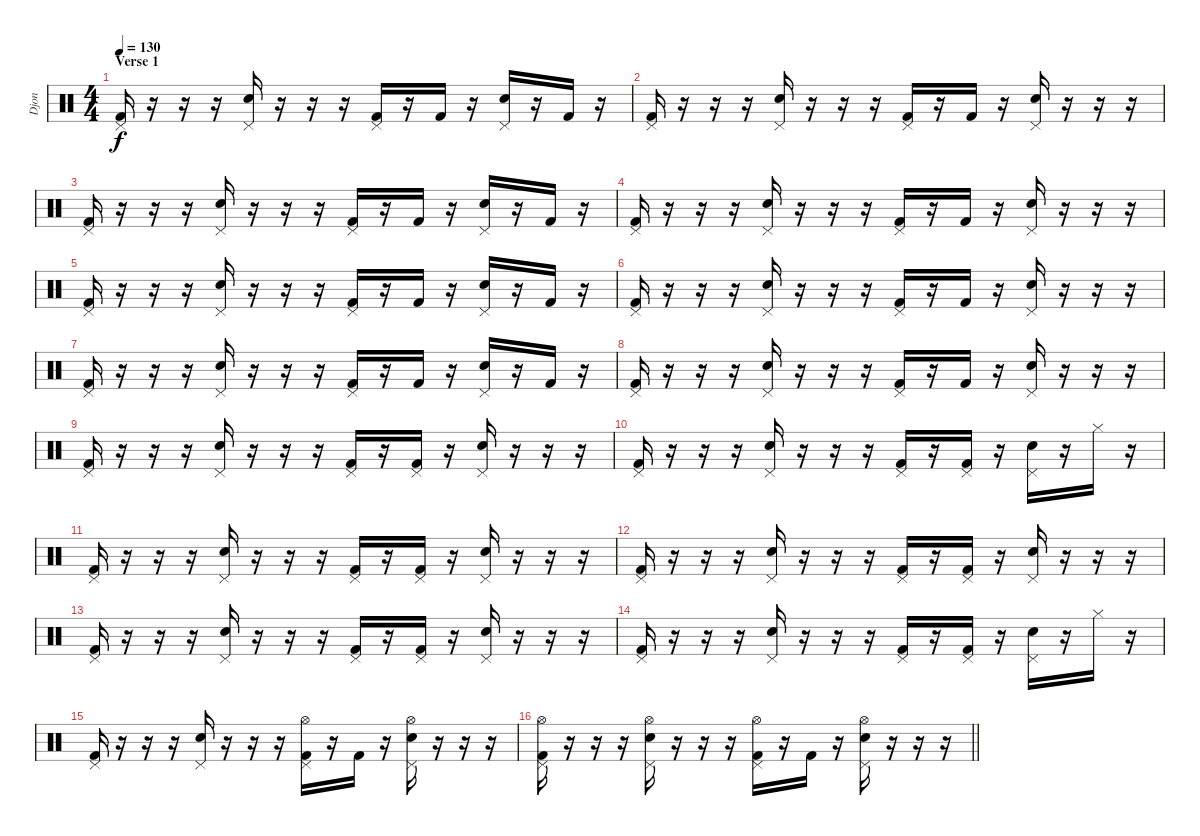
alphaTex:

\track ("Djon" "Djon") {instrument percussion}
\staff {score}
\articulation defaults
\ts (4 4)
\section ("" "Verse 1")
\tempo 130
\clef neutral
\ks c
("Pedal Hi-Hat (hit)" "Kick (hit) 2").16{dy f} r.16 r.16 r.16 ("Pedal Hi-Hat (hit)" "Snare (hit) 2").16 r.16 r.16 r.16 ("Pedal Hi-Hat (hit)" "Kick (hit) 2").16 r.16 "Kick (hit) 2".16 r.16 ("Pedal Hi-Hat (hit)" "Snare (hit) 2").16 r.16 "Kick (hit) 2".16 r.16 |
("Pedal Hi-Hat (hit)" "Kick (hit) 2").16 r.16 r.16 r.16 ("Pedal Hi-Hat (hit)" "Snare (hit) 2").16 r.16 r.16 r.16 ("Pedal Hi-Hat (hit)" "Kick (hit) 2").16 r.16 "Kick (hit) 2".16 r.16 ("Pedal Hi-Hat (hit)" "Snare (hit) 2").16 r.16 r.16 r.16 |
("Pedal Hi-Hat (hit)" "Kick (hit) 2").16 r.16 r.16 r.16 ("Pedal Hi-Hat (hit)" "Snare (hit) 2").16 r.16 r.16 r.16 ("Pedal Hi-Hat (hit)" "Kick (hit) 2").16 r.16 "Kick (hit) 2".16 r.16 ("Pedal Hi-Hat (hit)" "Snare (hit) 2").16 r.16 "Kick (hit) 2".16 r.16 |
("Pedal Hi-Hat (hit)" "Kick (hit) 2").16 r.16 r.16 r.16 ("Pedal Hi-Hat (hit)" "Snare (hit) 2").16 r.16 r.16 r.16 ("Pedal Hi-Hat (hit)" "Kick (hit) 2").16 r.16 "Kick (hit) 2".16 r.16 ("Pedal Hi-Hat (hit)" "Snare (hit) 2").16 r.16 r.16 r.16 |
("Pedal Hi-Hat (hit)" "Kick (hit) 2").16 r.16 r.16 r.16 ("Pedal Hi-Hat (hit)" "Snare (hit) 2").16 r.16 r.16 r.16 ("Pedal Hi-Hat (hit)" "Kick (hit) 2").16 r.16 "Kick (hit) 2".16 r.16 ("Pedal Hi-Hat (hit)" "Snare (hit) 2").16 r.16 "Kick (hit) 2".16 r.16 |
("Pedal Hi-Hat (hit)" "Kick (hit) 2").16 r.16 r.16 r.16 ("Pedal Hi-Hat (hit)" "Snare (hit) 2").16 r.16 r.16 r.16 ("Pedal Hi-Hat (hit)" "Kick (hit) 2").16 r.16 "Kick (hit) 2".16 r.16 ("Pedal Hi-Hat (hit)" "Snare (hit) 2").16 r.16 r.16 r.16 |
("Pedal Hi-Hat (hit)" "Kick (hit) 2").16 r.16 r.16 r.16 ("Pedal Hi-Hat (hit)" "Snare (hit) 2").16 r.16 r.16 r.16 ("Pedal Hi-Hat (hit)" "Kick (hit) 2").16 r.16 "Kick (hit) 2".16 r.16 ("Pedal Hi-Hat (hit)" "Snare (hit) 2").16 r.16 "Kick (hit) 2".16 r.16 |
("Pedal Hi-Hat (hit)" "Kick (hit) 2").16 r.16 r.16 r.16 ("Pedal Hi-Hat (hit)" "Snare (hit) 2").16 r.16 r.16 r.16 ("Pedal Hi-Hat (hit)" "Kick (hit) 2").16 r.16 "Kick (hit) 2".16 r.16 ("Pedal Hi-Hat (hit)" "Snare (hit) 2").16 r.16 r.16 r.16 |
("Pedal Hi-Hat (hit)" "Kick (hit) 2").16 r.16 r.16 r.16 ("Pedal Hi-Hat (hit)" "Snare (hit) 2").16 r.16 r.16 r.16 ("Pedal Hi-Hat (hit)" "Kick (hit) 2").16 r.16 ("Pedal Hi-Hat (hit)" "Kick (hit) 2").16 r.16 ("Pedal Hi-Hat (hit)" "Snare (hit) 2").16 r.16 r.16 r.16 |
("Pedal Hi-Hat (hit)" "Kick (hit) 2").16 r.16 r.16 r.16 ("Pedal Hi-Hat (hit)" "Snare (hit) 2").16 r.16 r.16 r.16 ("Pedal Hi-Hat (hit)" "Kick (hit) 2").16 r.16 ("Pedal Hi-Hat (hit)" "Kick (hit) 2").16 r.16 ("Pedal Hi-Hat (hit)" "Snare (hit) 2").16 r.16 "Hi-Hat (closed)".16 r.16 |
("Pedal Hi-Hat (hit)" "Kick (hit) 2").16 r.16 r.16 r.16 ("Pedal Hi-Hat (hit)" "Snare (hit) 2").16 r.16 r.16 r.16 ("Pedal Hi-Hat (hit)" "Kick (hit) 2").16 r.16 ("Pedal Hi-Hat (hit)" "Kick (hit) 2").16 r.16 ("Pedal Hi-Hat (hit)" "Snare (hit) 2").16 r.16 r.16 r.16 |
("Pedal Hi-Hat (hit)" "Kick (hit) 2").16 r.16 r.16 r.16 ("Pedal Hi-Hat (hit)" "Snare (hit) 2").16 r.16 r.16 r.16 ("Pedal Hi-Hat (hit)" "Kick (hit) 2").16 r.16 ("Pedal Hi-Hat (hit)" "Kick (hit) 2").16 r.16 ("Pedal Hi-Hat (hit)" "Snare (hit) 2").16 r.16 r.16 r.16 |
("Pedal Hi-Hat (hit)" "Kick (hit) 2").16 r.16 r.16 r.16 ("Pedal Hi-Hat (hit)" "Snare (hit) 2").16 r.16 r.16 r.16 ("Pedal Hi-Hat (hit)" "Kick (hit) 2").16 r.16 ("Pedal Hi-Hat (hit)" "Kick (hit) 2").16 r.16 ("Pedal Hi-Hat (hit)" "Snare (hit) 2").16 r.16 r.16 r.16 |
("Pedal Hi-Hat (hit)" "Kick (hit) 2").16 r.16 r.16 r.16 ("Pedal Hi-Hat (hit)" "Snare (hit) 2").16 r.16 r.16 r.16 ("Pedal Hi-Hat (hit)" "Kick (hit) 2").16 r.16 ("Pedal Hi-Hat (hit)" "Kick (hit) 2").16 r.16 ("Pedal Hi-Hat (hit)" "Snare (hit) 2").16 r.16 "Hi-Hat (closed)".16 r.16 |
("Pedal Hi-Hat (hit)" "Kick (hit) 2").16 r.16 r.16 r.16 ("Pedal Hi-Hat (hit)" "Snare (hit) 2").16 r.16 r.16 r.16 ("Pedal Hi-Hat (hit)" "Hi-Hat (open)" "Kick (hit) 2").16 r.16 "Kick (hit) 2".16 r.16 ("Pedal Hi-Hat (hit)" "Hi-Hat (open)" "Snare (hit) 2").16 r.16 r.16 r.16 |
\barLineRight lightlight
("Pedal Hi-Hat (hit)" "Hi-Hat (open)" "Kick (hit) 2").16 r.16 r.16 r.16 ("Pedal Hi-Hat (hit)" "Hi-Hat (open)" "Snare (hit) 2").16 r.16 r.16 r.16 ("Pedal Hi-Hat (hit)" "Hi-Hat (open)" "Kick (hit) 2").16 r.16 "Kick (hit) 2".16 r.16 ("Pedal Hi-Hat (hit)" "Hi-Hat (open)" "Snare (hit) 2").16 r.16 r.16 r.16
